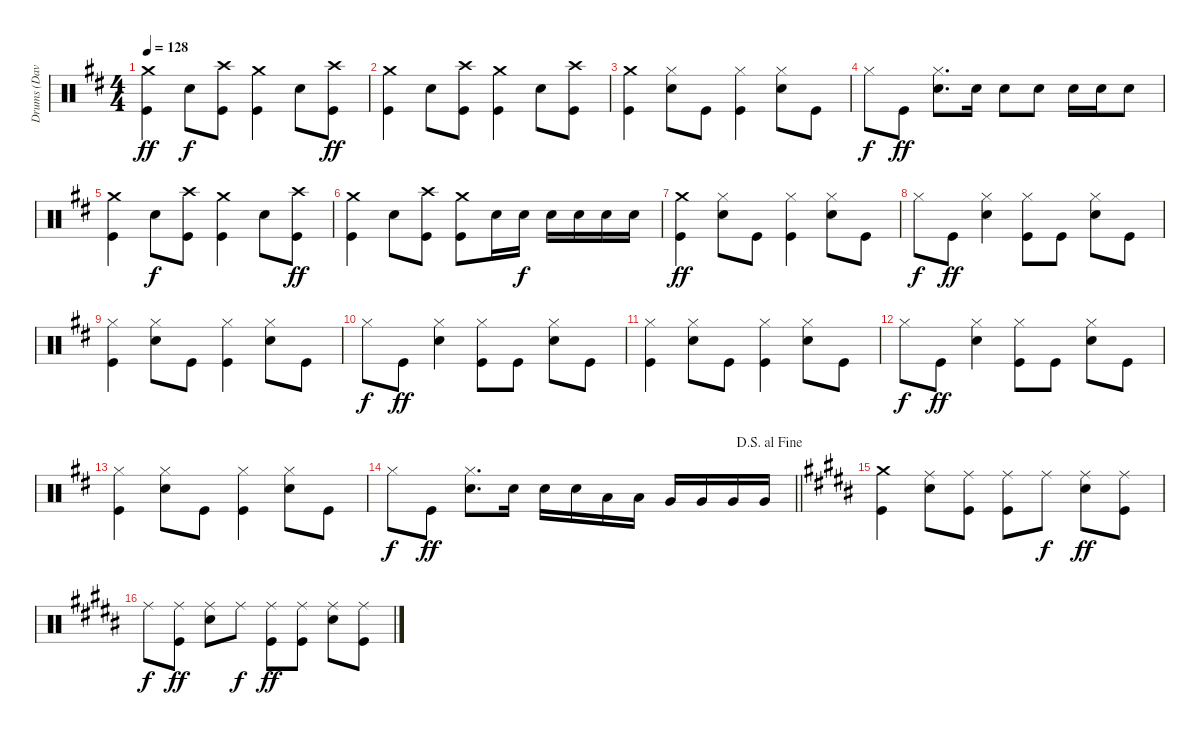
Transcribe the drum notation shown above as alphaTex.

\track ("Drums (Dave)" "Drums (Dav") {instrument percussion}
\staff {score}
\articulation defaults
\ts (4 4)
\tempo 128
\clef neutral
\ks d
("Crash medium (hit)" "Kick (hit)").4{dy ff} "Electric Snare (hit)".8{dy f} ("Crash high (hit)" "Kick (hit)").8 ("Crash medium (hit)" "Kick (hit)").4 "Electric Snare (hit)".8 ("Crash high (hit)" "Kick (hit)").8{dy ff} |
("Crash medium (hit)" "Kick (hit)").4 "Electric Snare (hit)".8 ("Crash high (hit)" "Kick (hit)").8 ("Crash medium (hit)" "Kick (hit)").4 "Electric Snare (hit)".8 ("Crash high (hit)" "Kick (hit)").8 |
("Crash medium (hit)" "Kick (hit)").4 ("Hi-Hat (closed)" "Electric Snare (hit)").8 "Kick (hit)".8 ("Hi-Hat (closed)" "Kick (hit)").4 ("Hi-Hat (closed)" "Electric Snare (hit)").8 "Kick (hit)".8 |
"Hi-Hat (closed)".8{dy f} "Kick (hit)".8{dy ff} ("Hi-Hat (closed)" "Electric Snare (hit)").8{d} "Electric Snare (hit)".16 "Electric Snare (hit)".8 "Electric Snare (hit)".8 "Electric Snare (hit)".16 "Electric Snare (hit)".16 "Electric Snare (hit)".8 |
("Crash medium (hit)" "Kick (hit)").4 "Electric Snare (hit)".8{dy f} ("Crash high (hit)" "Kick (hit)").8 ("Crash medium (hit)" "Kick (hit)").4 "Electric Snare (hit)".8 ("Crash high (hit)" "Kick (hit)").8{dy ff} |
("Crash medium (hit)" "Kick (hit)").4 "Electric Snare (hit)".8 ("Crash high (hit)" "Kick (hit)").8 ("Crash medium (hit)" "Kick (hit)").8 "Electric Snare (hit)".16 "Electric Snare (hit)".16{dy f} "Electric Snare (hit)".16 "Electric Snare (hit)".16 "Electric Snare (hit)".16 "Electric Snare (hit)".16 |
("Crash medium (hit)" "Kick (hit)").4{dy ff} ("Hi-Hat (closed)" "Electric Snare (hit)").8 "Kick (hit)".8 ("Hi-Hat (closed)" "Kick (hit)").4 ("Hi-Hat (closed)" "Electric Snare (hit)").8 "Kick (hit)".8 |
"Hi-Hat (closed)".8{dy f} "Kick (hit)".8{dy ff} ("Hi-Hat (closed)" "Electric Snare (hit)").4 ("Hi-Hat (closed)" "Kick (hit)").8 "Kick (hit)".8 ("Hi-Hat (closed)" "Electric Snare (hit)").8 "Kick (hit)".8 |
("Hi-Hat (closed)" "Kick (hit)").4 ("Hi-Hat (closed)" "Electric Snare (hit)").8 "Kick (hit)".8 ("Hi-Hat (closed)" "Kick (hit)").4 ("Hi-Hat (closed)" "Electric Snare (hit)").8 "Kick (hit)".8 |
"Hi-Hat (closed)".8{dy f} "Kick (hit)".8{dy ff} ("Hi-Hat (closed)" "Electric Snare (hit)").4 ("Hi-Hat (closed)" "Kick (hit)").8 "Kick (hit)".8 ("Hi-Hat (closed)" "Electric Snare (hit)").8 "Kick (hit)".8 |
("Hi-Hat (closed)" "Kick (hit)").4 ("Hi-Hat (closed)" "Electric Snare (hit)").8 "Kick (hit)".8 ("Hi-Hat (closed)" "Kick (hit)").4 ("Hi-Hat (closed)" "Electric Snare (hit)").8 "Kick (hit)".8 |
"Hi-Hat (closed)".8{dy f} "Kick (hit)".8{dy ff} ("Hi-Hat (closed)" "Electric Snare (hit)").4 ("Hi-Hat (closed)" "Kick (hit)").8 "Kick (hit)".8 ("Hi-Hat (closed)" "Electric Snare (hit)").8 "Kick (hit)".8 |
("Hi-Hat (closed)" "Kick (hit)").4 ("Hi-Hat (closed)" "Electric Snare (hit)").8 "Kick (hit)".8 ("Hi-Hat (closed)" "Kick (hit)").4 ("Hi-Hat (closed)" "Electric Snare (hit)").8 "Kick (hit)".8 |
\jump dalsegnoalfine
\barLineRight lightlight "Hi-Hat (closed)".8{dy f} "Kick (hit)".8{dy ff}
("Hi-Hat (closed)" "Electric Snare (hit)").8{d} "Electric Snare (hit)".16 "Electric Snare (hit)".16 "Electric Snare (hit)".16 "Low Tom (hit)".16 "Low Tom (hit)".16 "Very Low Tom (hit)".16 "Very Low Tom (hit)".16 "Very Low Tom (hit)".16 "Very Low Tom (hit)".16 |
\section ("" "")
\ks b
("Crash medium (hit)" "Kick (hit)").4 ("Ride (middle)" "Electric Snare (hit)").8 ("Ride (middle)" "Kick (hit)").8 ("Ride (middle)" "Kick (hit)").8 "Ride (middle)".8{dy f} ("Ride (middle)" "Electric Snare (hit)").8{dy ff} ("Ride (middle)" "Kick (hit)").8 |
"Ride (middle)".8{dy f} ("Ride (middle)" "Kick (hit)").8{dy ff} ("Ride (middle)" "Electric Snare (hit)").8 "Ride (middle)".8{dy f} ("Ride (middle)" "Kick (hit)").8{dy ff} ("Ride (middle)" "Kick (hit)").8 ("Ride (middle)" "Electric Snare (hit)").8 ("Ride (middle)" "Kick (hit)").8
